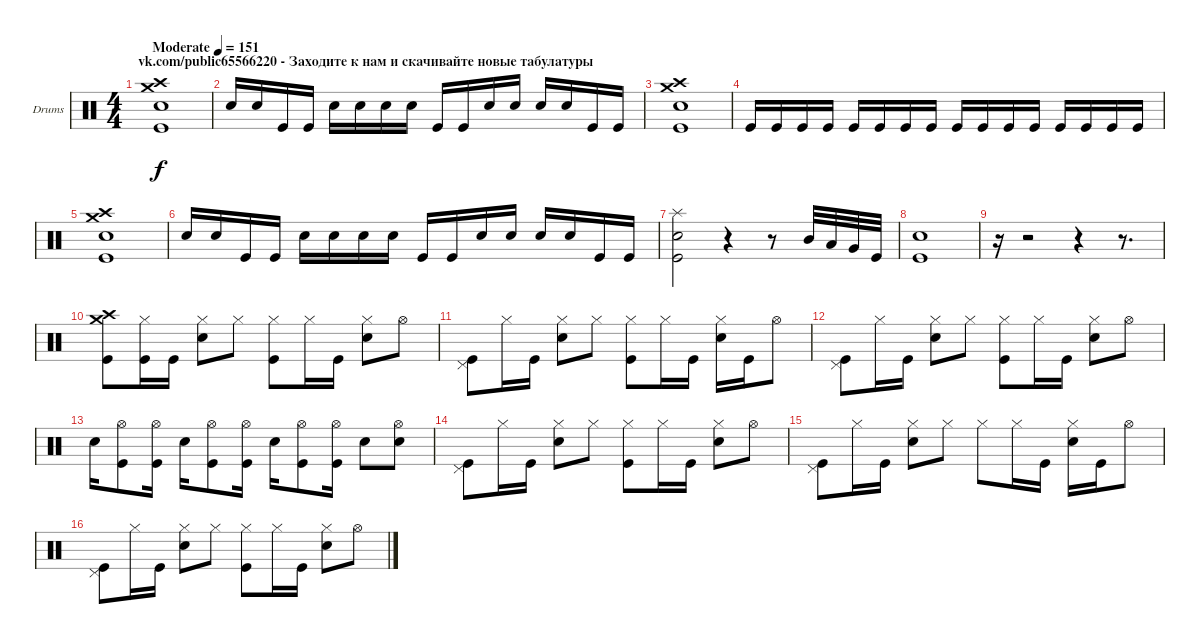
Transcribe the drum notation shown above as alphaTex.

\bracketExtendMode groupsimilarinstruments
\firstSystemTrackNameOrientation horizontal
\otherSystemsTrackNameOrientation horizontal
\track ("Ударные" "Drums") {instrument percussion}
\staff {score}
\articulation defaults
\ts (4 4)
\beaming (8 2 2 2 2)
\section ("" "vk.com/public65566220 - Заходите к нам и скачивайте новые табулатуры")
\tempo (151 "Moderate")
\clef neutral
\ks c
("Crash medium (hit)" "Crash high (hit)" "Snare (hit) 2" "Kick (hit)").1{dy f} |
"Snare (hit) 2".16 "Snare (hit) 2".16 "Kick (hit)".16 "Kick (hit)".16 "Snare (hit) 2".16 "Snare (hit) 2".16 "Snare (hit) 2".16 "Snare (hit) 2".16 "Kick (hit)".16 "Kick (hit)".16 "Snare (hit) 2".16 "Snare (hit) 2".16 "Snare (hit) 2".16 "Snare (hit) 2".16 "Kick (hit)".16 "Kick (hit)".16 |
("Crash medium (hit)" "Crash high (hit)" "Snare (hit) 2" "Kick (hit)").1 |
"Kick (hit)".16 "Kick (hit)".16 "Kick (hit)".16 "Kick (hit)".16 "Kick (hit)".16 "Kick (hit)".16 "Kick (hit)".16 "Kick (hit)".16 "Kick (hit)".16 "Kick (hit)".16 "Kick (hit)".16 "Kick (hit)".16 "Kick (hit)".16 "Kick (hit)".16 "Kick (hit)".16 "Kick (hit)".16 |
("Crash medium (hit)" "Crash high (hit)" "Snare (hit) 2" "Kick (hit)").1 |
"Snare (hit) 2".16 "Snare (hit) 2".16 "Kick (hit)".16 "Kick (hit)".16 "Snare (hit) 2".16 "Snare (hit) 2".16 "Snare (hit) 2".16 "Snare (hit) 2".16 "Kick (hit)".16 "Kick (hit)".16 "Snare (hit) 2".16 "Snare (hit) 2".16 "Snare (hit) 2".16 "Snare (hit) 2".16 "Kick (hit)".16 "Kick (hit)".16 |
("Splash (hit)" "Snare (hit) 2" "Kick (hit)").2 r.4 r.8 "Mid Tom (hit)".32 "Low Tom (hit)".32 "Very Low Tom (hit)".32 "Kick (hit)".32 |
("Snare (hit) 2" "Kick (hit)").1 |
r.16 r.2 r.4 r.8{d} |
("Crash medium (hit)" "Crash high (hit)" "Kick (hit)").8 ("Hi-Hat (closed)" "Kick (hit)").16 "Kick (hit)".16 ("Hi-Hat (closed)" "Snare (hit) 2").8 "Hi-Hat (closed)".8 ("Hi-Hat (closed)" "Kick (hit)").8 "Hi-Hat (closed)".16 "Kick (hit)".16 ("Hi-Hat (closed)" "Snare (hit) 2").8 "Hi-Hat (open)".8 |
("Pedal Hi-Hat (hit)" "Kick (hit)").8 "Hi-Hat (closed)".16 "Kick (hit)".16 ("Hi-Hat (closed)" "Snare (hit) 2").8 "Hi-Hat (closed)".8 ("Hi-Hat (closed)" "Kick (hit)").8 "Hi-Hat (closed)".16 "Kick (hit)".16 ("Hi-Hat (closed)" "Snare (hit) 2").16 "Kick (hit)".16 "Hi-Hat (open)".8 |
("Pedal Hi-Hat (hit)" "Kick (hit)").8 "Hi-Hat (closed)".16 "Kick (hit)".16 ("Hi-Hat (closed)" "Snare (hit) 2").8 "Hi-Hat (closed)".8 ("Hi-Hat (closed)" "Kick (hit)").8 "Hi-Hat (closed)".16 "Kick (hit)".16 ("Hi-Hat (closed)" "Snare (hit) 2").8 "Hi-Hat (open)".8 |
"Snare (hit) 2".16 ("Hi-Hat (open)" "Kick (hit)").8 ("Hi-Hat (open)" "Kick (hit)").16 "Snare (hit) 2".16 ("Hi-Hat (open)" "Kick (hit)").8 ("Hi-Hat (open)" "Kick (hit)").16 "Snare (hit) 2".16 ("Hi-Hat (open)" "Kick (hit)").8 ("Hi-Hat (open)" "Kick (hit)").16 "Snare (hit) 2".8 ("Hi-Hat (open)" "Snare (hit) 2").8 |
("Pedal Hi-Hat (hit)" "Kick (hit)").8 "Hi-Hat (closed)".16 "Kick (hit)".16 ("Hi-Hat (closed)" "Snare (hit) 2").8 "Hi-Hat (closed)".8 ("Hi-Hat (closed)" "Kick (hit)").8 "Hi-Hat (closed)".16 "Kick (hit)".16 ("Hi-Hat (closed)" "Snare (hit) 2").8 "Hi-Hat (open)".8 |
("Pedal Hi-Hat (hit)" "Kick (hit)").8 "Hi-Hat (closed)".16 "Kick (hit)".16 ("Hi-Hat (closed)" "Snare (hit) 2").8 "Hi-Hat (closed)".8 "Hi-Hat (closed)".8 "Hi-Hat (closed)".16 "Kick (hit)".16 ("Hi-Hat (closed)" "Snare (hit) 2").16 "Kick (hit)".16 "Hi-Hat (open)".8 |
("Pedal Hi-Hat (hit)" "Kick (hit)").8 "Hi-Hat (closed)".16 "Kick (hit)".16 ("Hi-Hat (closed)" "Snare (hit) 2").8 "Hi-Hat (closed)".8 ("Hi-Hat (closed)" "Kick (hit)").8 "Hi-Hat (closed)".16 "Kick (hit)".16 ("Hi-Hat (closed)" "Snare (hit) 2").8 "Hi-Hat (open)".8
